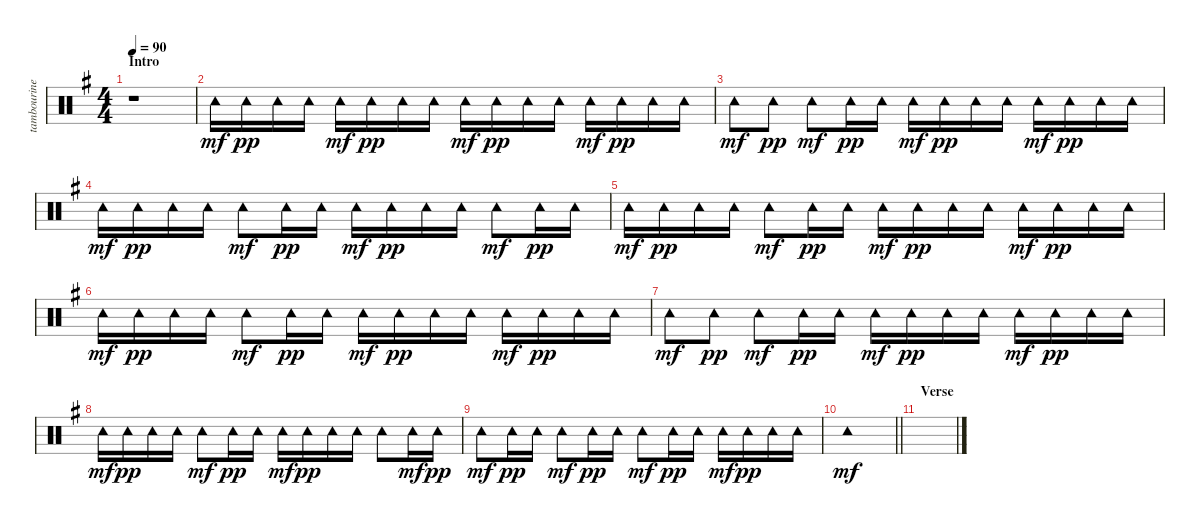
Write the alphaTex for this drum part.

\track ("tambourine" "tambourine") {instrument percussion}
\staff {score}
\articulation defaults
\ts (4 4)
\section ("" "Intro")
\tempo 90
\clef neutral
\ks g
r.1{dy mf} |
"Tambourine (hit)".16 "Tambourine (hit)".16{dy pp} "Tambourine (hit)".16 "Tambourine (hit)".16 "Tambourine (hit)".16{dy mf} "Tambourine (hit)".16{dy pp} "Tambourine (hit)".16 "Tambourine (hit)".16 "Tambourine (hit)".16{dy mf} "Tambourine (hit)".16{dy pp} "Tambourine (hit)".16 "Tambourine (hit)".16 "Tambourine (hit)".16{dy mf} "Tambourine (hit)".16{dy pp} "Tambourine (hit)".16 "Tambourine (hit)".16 |
"Tambourine (hit)".8{dy mf} "Tambourine (hit)".8{dy pp} "Tambourine (hit)".8{dy mf} "Tambourine (hit)".16{dy pp} "Tambourine (hit)".16 "Tambourine (hit)".16{dy mf} "Tambourine (hit)".16{dy pp} "Tambourine (hit)".16 "Tambourine (hit)".16 "Tambourine (hit)".16{dy mf} "Tambourine (hit)".16{dy pp} "Tambourine (hit)".16 "Tambourine (hit)".16 |
"Tambourine (hit)".16{dy mf} "Tambourine (hit)".16{dy pp} "Tambourine (hit)".16 "Tambourine (hit)".16 "Tambourine (hit)".8{dy mf} "Tambourine (hit)".16{dy pp} "Tambourine (hit)".16 "Tambourine (hit)".16{dy mf} "Tambourine (hit)".16{dy pp} "Tambourine (hit)".16 "Tambourine (hit)".16 "Tambourine (hit)".8{dy mf} "Tambourine (hit)".16{dy pp} "Tambourine (hit)".16 |
"Tambourine (hit)".16{dy mf} "Tambourine (hit)".16{dy pp} "Tambourine (hit)".16 "Tambourine (hit)".16 "Tambourine (hit)".8{dy mf} "Tambourine (hit)".16{dy pp} "Tambourine (hit)".16 "Tambourine (hit)".16{dy mf} "Tambourine (hit)".16{dy pp} "Tambourine (hit)".16 "Tambourine (hit)".16 "Tambourine (hit)".16{dy mf} "Tambourine (hit)".16{dy pp} "Tambourine (hit)".16 "Tambourine (hit)".16 |
"Tambourine (hit)".16{dy mf} "Tambourine (hit)".16{dy pp} "Tambourine (hit)".16 "Tambourine (hit)".16 "Tambourine (hit)".8{dy mf} "Tambourine (hit)".16{dy pp} "Tambourine (hit)".16 "Tambourine (hit)".16{dy mf} "Tambourine (hit)".16{dy pp} "Tambourine (hit)".16 "Tambourine (hit)".16 "Tambourine (hit)".16{dy mf} "Tambourine (hit)".16{dy pp} "Tambourine (hit)".16 "Tambourine (hit)".16 |
"Tambourine (hit)".8{dy mf} "Tambourine (hit)".8{dy pp} "Tambourine (hit)".8{dy mf} "Tambourine (hit)".16{dy pp} "Tambourine (hit)".16 "Tambourine (hit)".16{dy mf} "Tambourine (hit)".16{dy pp} "Tambourine (hit)".16 "Tambourine (hit)".16 "Tambourine (hit)".16{dy mf} "Tambourine (hit)".16{dy pp} "Tambourine (hit)".16 "Tambourine (hit)".16 |
"Tambourine (hit)".16{dy mf} "Tambourine (hit)".16{dy pp} "Tambourine (hit)".16 "Tambourine (hit)".16 "Tambourine (hit)".8{dy mf} "Tambourine (hit)".16{dy pp} "Tambourine (hit)".16 "Tambourine (hit)".16{dy mf} "Tambourine (hit)".16{dy pp} "Tambourine (hit)".16 "Tambourine (hit)".16 "Tambourine (hit)".8 "Tambourine (hit)".16{dy mf} "Tambourine (hit)".16{dy pp} |
"Tambourine (hit)".8{dy mf} "Tambourine (hit)".16{dy pp} "Tambourine (hit)".16 "Tambourine (hit)".8{dy mf} "Tambourine (hit)".16{dy pp} "Tambourine (hit)".16 "Tambourine (hit)".8{dy mf} "Tambourine (hit)".16{dy pp} "Tambourine (hit)".16 "Tambourine (hit)".16{dy mf} "Tambourine (hit)".16{dy pp} "Tambourine (hit)".16 "Tambourine (hit)".16 |
\barLineRight lightlight "Tambourine (hit)".1{dy mf}
|
\section ("" "Verse")
